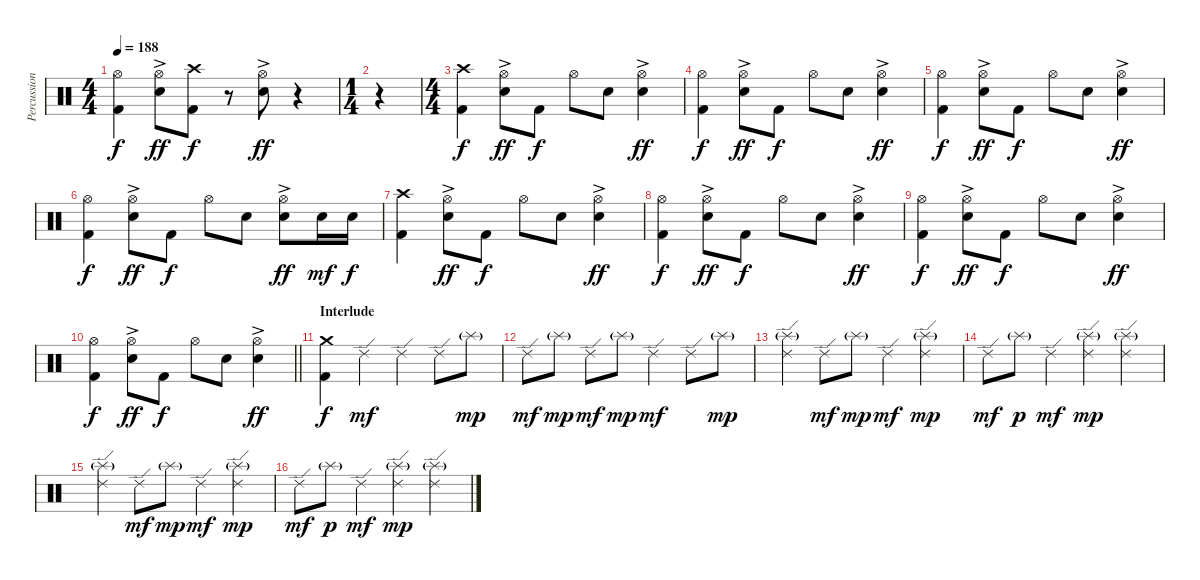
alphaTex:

\track ("Percussion" "Percussion") {instrument percussion}
\staff {score}
\articulation defaults
\ts (4 4)
\tempo 188
\clef neutral
\ks c
("Hi-Hat (open)" "Kick (hit) 2").4{dy f} ("Hi-Hat (open)" "Electric Snare (hit)"{ac}).8{dy ff} ("Crash high (hit)" "Kick (hit) 2").8{dy f} r.8 ("Hi-Hat (open)" "Electric Snare (hit)"{ac}).8{dy ff} r.4 |
\ts (1 4)
r.4 |
\ts (4 4)
("Crash high (hit)" "Kick (hit) 2").4{dy f} ("Hi-Hat (open)" "Electric Snare (hit)"{ac}).8{dy ff} "Kick (hit) 2".8{dy f} "Hi-Hat (open)".8 "Electric Snare (hit)".8 ("Hi-Hat (open)" "Electric Snare (hit)"{ac}).4{dy ff} |
("Hi-Hat (open)" "Kick (hit) 2").4{dy f} ("Hi-Hat (open)" "Electric Snare (hit)"{ac}).8{dy ff} "Kick (hit) 2".8{dy f} "Hi-Hat (open)".8 "Electric Snare (hit)".8 ("Hi-Hat (open)" "Electric Snare (hit)"{ac}).4{dy ff} |
("Hi-Hat (open)" "Kick (hit) 2").4{dy f} ("Hi-Hat (open)" "Electric Snare (hit)"{ac}).8{dy ff} "Kick (hit) 2".8{dy f} "Hi-Hat (open)".8 "Electric Snare (hit)".8 ("Hi-Hat (open)" "Electric Snare (hit)"{ac}).4{dy ff} |
("Hi-Hat (open)" "Kick (hit) 2").4{dy f} ("Hi-Hat (open)" "Electric Snare (hit)"{ac}).8{dy ff} "Kick (hit) 2".8{dy f} "Hi-Hat (open)".8 "Electric Snare (hit)".8 ("Hi-Hat (open)" "Electric Snare (hit)"{ac}).8{dy ff} "Electric Snare (hit)".16{dy mf} "Electric Snare (hit)".16{dy f} |
("Crash high (hit)" "Kick (hit) 2").4 ("Hi-Hat (open)" "Electric Snare (hit)"{ac}).8{dy ff} "Kick (hit) 2".8{dy f} "Hi-Hat (open)".8 "Electric Snare (hit)".8 ("Hi-Hat (open)" "Electric Snare (hit)"{ac}).4{dy ff} |
("Hi-Hat (open)" "Kick (hit) 2").4{dy f} ("Hi-Hat (open)" "Electric Snare (hit)"{ac}).8{dy ff} "Kick (hit) 2".8{dy f} "Hi-Hat (open)".8 "Electric Snare (hit)".8 ("Hi-Hat (open)" "Electric Snare (hit)"{ac}).4{dy ff} |
("Hi-Hat (open)" "Kick (hit) 2").4{dy f} ("Hi-Hat (open)" "Electric Snare (hit)"{ac}).8{dy ff} "Kick (hit) 2".8{dy f} "Hi-Hat (open)".8 "Electric Snare (hit)".8 ("Hi-Hat (open)" "Electric Snare (hit)"{ac}).4{dy ff} |
\barLineRight lightlight
("Hi-Hat (open)" "Kick (hit) 2").4{dy f} ("Hi-Hat (open)" "Electric Snare (hit)"{ac}).8{dy ff} "Kick (hit) 2".8{dy f} "Hi-Hat (open)".8 "Electric Snare (hit)".8 ("Hi-Hat (open)" "Electric Snare (hit)"{ac}).4{dy ff} |
\section ("" "Interlude")
("Crash medium (hit)" "Kick (hit) 2").4{dy f} "Ride (edge) 2".4{dy mf} "Ride (edge) 2".4 "Ride (edge) 2".8 "Splash (hit)"{g}.8{dy mp} |
"Ride (edge) 2".8{dy mf} "Splash (hit)"{g}.8{dy mp} "Ride (edge) 2".8{dy mf} "Splash (hit)"{g}.8{dy mp} "Ride (edge) 2".4{dy mf} "Ride (edge) 2".8 "Splash (hit)"{g}.8{dy mp} |
("Ride (edge) 2" "Splash (hit)"{g}).4 "Ride (edge) 2".8{dy mf} "Splash (hit)"{g}.8{dy mp} "Ride (edge) 2".4{dy mf} ("Ride (edge) 2" "Splash (hit)"{g}).4{dy mp} |
"Ride (edge) 2".8{dy mf} "Splash (hit)"{g}.8{dy p} "Ride (edge) 2".4{dy mf} ("Ride (edge) 2" "Splash (hit)"{g}).4{dy mp} ("Ride (edge) 2" "Splash (hit)"{g}).4 |
("Ride (edge) 2" "Splash (hit)"{g}).4 "Ride (edge) 2".8{dy mf} "Splash (hit)"{g}.8{dy mp} "Ride (edge) 2".4{dy mf} ("Ride (edge) 2" "Splash (hit)"{g}).4{dy mp} |
"Ride (edge) 2".8{dy mf} "Splash (hit)"{g}.8{dy p} "Ride (edge) 2".4{dy mf} ("Ride (edge) 2" "Splash (hit)"{g}).4{dy mp} ("Ride (edge) 2" "Splash (hit)"{g}).4
